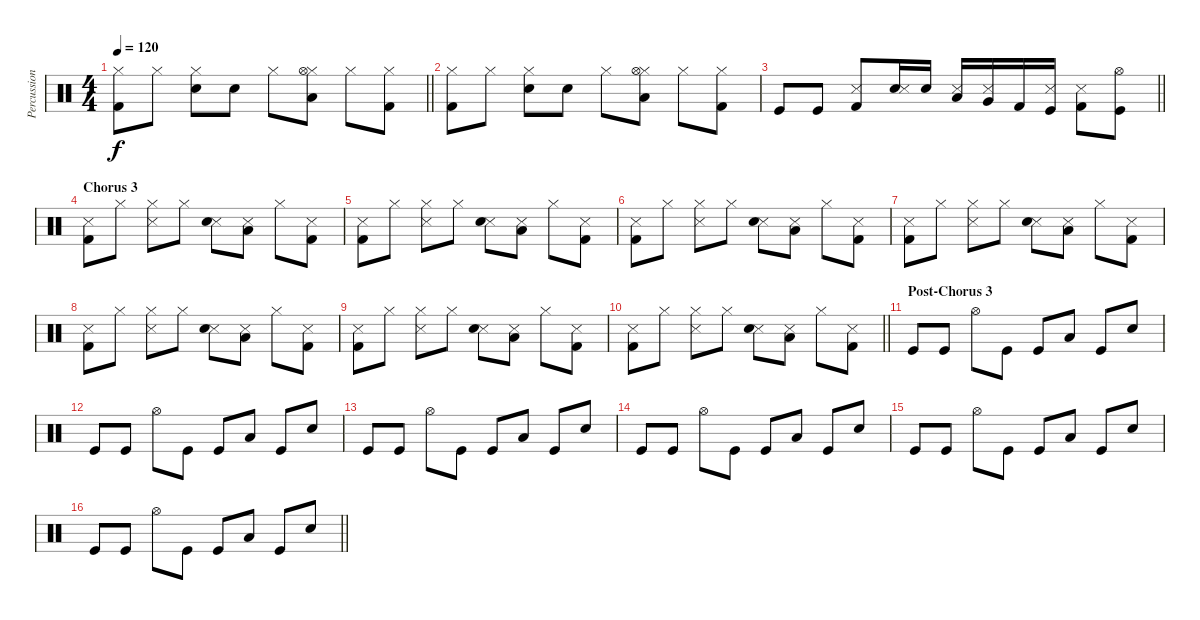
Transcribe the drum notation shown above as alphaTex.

\track ("Percussion" "Percussion") {instrument percussion}
\staff {score}
\articulation defaults
\ts (4 4)
\tempo 120
\clef neutral
\barLineRight lightlight
\ks c
("Hi-Hat (closed)" "Kick (hit) 2").8{dy f} "Hi-Hat (closed)".8 ("Hi-Hat (closed)" "Snare (hit) 2").8 "Hand Clap (hit)".8 "Hi-Hat (closed)".8 ("Hi-Hat (closed)" "Low Floor Tom (hit)" "Hi-Hat (open)").8 "Hi-Hat (closed)".8 ("Hi-Hat (closed)" "Kick (hit) 2").8 |
("Hi-Hat (closed)" "Kick (hit) 2").8 "Hi-Hat (closed)".8 ("Hi-Hat (closed)" "Snare (hit) 2").8 "Hand Clap (hit)".8 "Hi-Hat (closed)".8 ("Hi-Hat (closed)" "Low Floor Tom (hit)" "Hi-Hat (open)").8 "Hi-Hat (closed)".8 ("Hi-Hat (closed)" "Kick (hit) 2").8 |
\barLineRight lightlight "Kick (hit)".8 "Kick (hit)".8
("Kick (hit) 2" "Snare (side stick) 3").8 ("Snare (hit) 2" "Snare (side stick) 3").16 "Snare (hit) 2".16 ("Low Floor Tom (hit)" "Snare (side stick) 3").16 ("Very Low Tom (hit)" "Metronome (hit)").16 "Kick (hit) 2".16 ("Kick (hit)" "Snare (side stick) 3").16 ("Kick (hit) 2" "Snare (side stick) 3").8 ("Kick (hit)" "Hi-Hat (open)").8 |
\section ("" "Chorus 3")
("Snare (side stick) 3" "Kick (hit) 2").8 "Hi-Hat (closed)".8 ("Snare (side stick) 3" "Hi-Hat (closed)").8 "Hi-Hat (closed)".8 ("Snare (side stick) 3" "Snare (hit) 2").8 ("Snare (side stick) 3" "Low Floor Tom (hit)").8 "Hi-Hat (closed)".8 ("Snare (side stick) 3" "Kick (hit) 2").8 |
("Snare (side stick) 3" "Kick (hit) 2").8 "Hi-Hat (closed)".8 ("Snare (side stick) 3" "Hi-Hat (closed)").8 "Hi-Hat (closed)".8 ("Snare (side stick) 3" "Snare (hit) 2").8 ("Snare (side stick) 3" "Low Floor Tom (hit)").8 "Hi-Hat (closed)".8 ("Snare (side stick) 3" "Kick (hit) 2").8 |
("Snare (side stick) 3" "Kick (hit) 2").8 "Hi-Hat (closed)".8 ("Snare (side stick) 3" "Hi-Hat (closed)").8 "Hi-Hat (closed)".8 ("Snare (side stick) 3" "Snare (hit) 2").8 ("Snare (side stick) 3" "Low Floor Tom (hit)").8 "Hi-Hat (closed)".8 ("Snare (side stick) 3" "Kick (hit) 2").8 |
("Snare (side stick) 3" "Kick (hit) 2").8 "Hi-Hat (closed)".8 ("Snare (side stick) 3" "Hi-Hat (closed)").8 "Hi-Hat (closed)".8 ("Snare (side stick) 3" "Snare (hit) 2").8 ("Snare (side stick) 3" "Low Floor Tom (hit)").8 "Hi-Hat (closed)".8 ("Snare (side stick) 3" "Kick (hit) 2").8 |
("Snare (side stick) 3" "Kick (hit) 2").8 "Hi-Hat (closed)".8 ("Snare (side stick) 3" "Hi-Hat (closed)").8 "Hi-Hat (closed)".8 ("Snare (side stick) 3" "Snare (hit) 2").8 ("Snare (side stick) 3" "Low Floor Tom (hit)").8 "Hi-Hat (closed)".8 ("Snare (side stick) 3" "Kick (hit) 2").8 |
("Snare (side stick) 3" "Kick (hit) 2").8 "Hi-Hat (closed)".8 ("Snare (side stick) 3" "Hi-Hat (closed)").8 "Hi-Hat (closed)".8 ("Snare (side stick) 3" "Snare (hit) 2").8 ("Snare (side stick) 3" "Low Floor Tom (hit)").8 "Hi-Hat (closed)".8 ("Snare (side stick) 3" "Kick (hit) 2").8 |
\barLineRight lightlight
("Snare (side stick) 3" "Kick (hit) 2").8 "Hi-Hat (closed)".8 ("Snare (side stick) 3" "Hi-Hat (closed)").8 "Hi-Hat (closed)".8 ("Snare (side stick) 3" "Snare (hit) 2").8 ("Snare (side stick) 3" "Low Floor Tom (hit)").8 "Hi-Hat (closed)".8 ("Snare (side stick) 3" "Kick (hit) 2").8 |
\section ("" "Post-Chorus 3")
"Kick (hit)".8 "Kick (hit)".8 "Hi-Hat (open)".8 "Kick (hit)".8 "Kick (hit)".8 "Low Floor Tom (hit)".8 "Kick (hit)".8 "Snare (hit) 2".8 |
"Kick (hit)".8 "Kick (hit)".8 "Hi-Hat (open)".8 "Kick (hit)".8 "Kick (hit)".8 "Low Floor Tom (hit)".8 "Kick (hit)".8 "Snare (hit) 2".8 |
"Kick (hit)".8 "Kick (hit)".8 "Hi-Hat (open)".8 "Kick (hit)".8 "Kick (hit)".8 "Low Floor Tom (hit)".8 "Kick (hit)".8 "Snare (hit) 2".8 |
"Kick (hit)".8 "Kick (hit)".8 "Hi-Hat (open)".8 "Kick (hit)".8 "Kick (hit)".8 "Low Floor Tom (hit)".8 "Kick (hit)".8 "Snare (hit) 2".8 |
"Kick (hit)".8 "Kick (hit)".8 "Hi-Hat (open)".8 "Kick (hit)".8 "Kick (hit)".8 "Low Floor Tom (hit)".8 "Kick (hit)".8 "Snare (hit) 2".8 |
\barLineRight lightlight "Kick (hit)".8 "Kick (hit)".8 "Hi-Hat (open)".8 "Kick (hit)".8 "Kick (hit)".8 "Low Floor Tom (hit)".8 "Kick (hit)".8 "Snare (hit) 2".8
